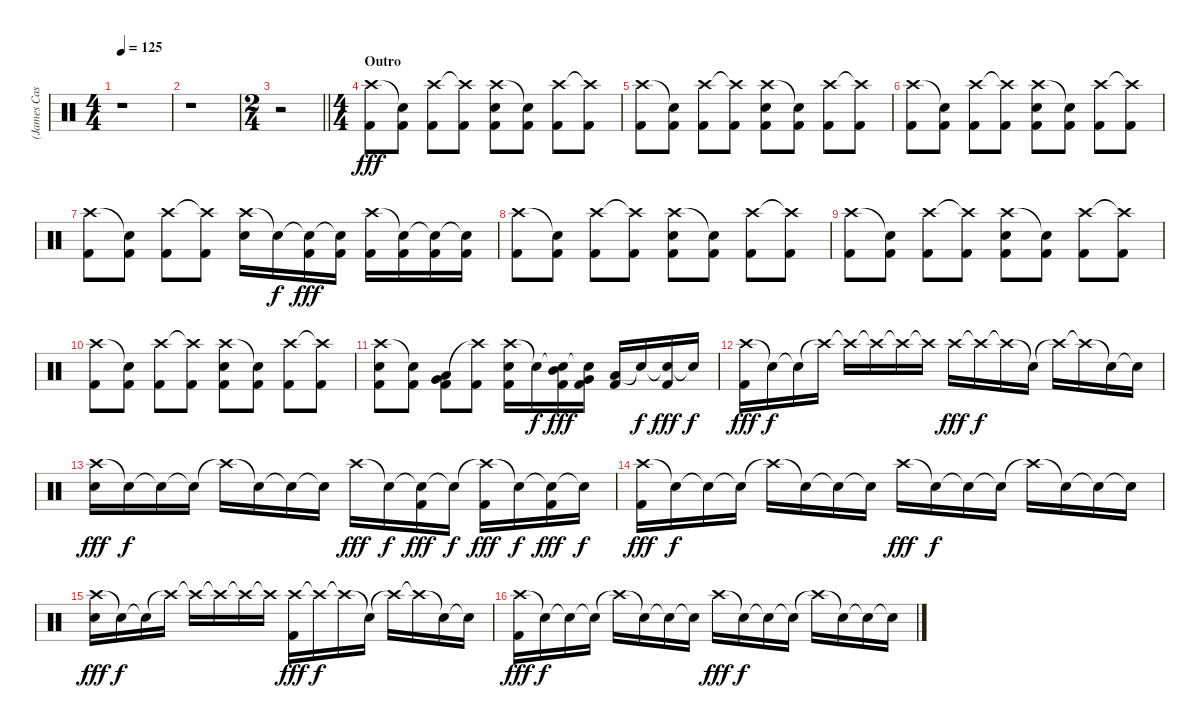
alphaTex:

\track ("(James Cassells) Drums" "(James Cas") {instrument percussion}
\staff {score}
\articulation defaults
\ts (4 4)
\tempo 125
\clef neutral
\ks c
r.1{dy fff} |
r.1 |
\ts (2 4)
\barLineRight lightlight
r.2 |
\ts (4 4)
\section ("" "Outro")
("Crash high (hit)" "Kick (hit) 2").8 ("Snare (hit)"{t} "Kick (hit) 2").8 ("Crash high (hit)" "Kick (hit) 2").8 ("Crash high (hit)"{t} "Kick (hit) 2").8 ("Crash high (hit)" "Electric Snare (hit)" "Kick (hit) 2").8 ("Snare (hit)"{t} "Kick (hit) 2").8 ("Crash high (hit)" "Kick (hit) 2").8 ("Crash high (hit)"{t} "Kick (hit) 2").8 |
("Crash high (hit)" "Kick (hit) 2").8 ("Snare (hit)"{t} "Kick (hit) 2").8 ("Crash high (hit)" "Kick (hit) 2").8 ("Crash high (hit)"{t} "Kick (hit) 2").8 ("Crash high (hit)" "Electric Snare (hit)" "Kick (hit) 2").8 ("Snare (hit)"{t} "Kick (hit) 2").8 ("Crash high (hit)" "Kick (hit) 2").8 ("Crash high (hit)"{t} "Kick (hit) 2").8 |
("Crash high (hit)" "Kick (hit) 2").8 ("Snare (hit)"{t} "Kick (hit) 2").8 ("Crash high (hit)" "Kick (hit) 2").8 ("Crash high (hit)"{t} "Kick (hit) 2").8 ("Crash high (hit)" "Electric Snare (hit)" "Kick (hit) 2").8 ("Snare (hit)"{t} "Kick (hit) 2").8 ("Crash high (hit)" "Kick (hit) 2").8 ("Crash high (hit)"{t} "Kick (hit) 2").8 |
("Crash high (hit)" "Kick (hit) 2").8 ("Snare (hit)"{t} "Kick (hit) 2").8 ("Crash high (hit)" "Kick (hit) 2").8 ("Crash high (hit)"{t} "Kick (hit) 2").8 ("Crash high (hit)" "Electric Snare (hit)").16 "Snare (hit)"{t}.16{dy f} ("Snare (hit)"{t} "Kick (hit) 2").16{dy fff} ("Snare (hit)"{t} "Kick (hit) 2").16 ("Crash high (hit)" "Kick (hit) 2").16 ("Snare (hit)"{t} "Kick (hit) 2").16 ("Snare (hit)"{t} "Kick (hit) 2").16 ("Snare (hit)"{t} "Kick (hit) 2").16 |
("Crash high (hit)" "Kick (hit) 2").8 ("Snare (hit)"{t} "Kick (hit) 2").8 ("Crash high (hit)" "Kick (hit) 2").8 ("Crash high (hit)"{t} "Kick (hit) 2").8 ("Crash high (hit)" "Electric Snare (hit)" "Kick (hit) 2").8 ("Snare (hit)"{t} "Kick (hit) 2").8 ("Crash high (hit)" "Kick (hit) 2").8 ("Crash high (hit)"{t} "Kick (hit) 2").8 |
("Crash high (hit)" "Kick (hit) 2").8 ("Snare (hit)"{t} "Kick (hit) 2").8 ("Crash high (hit)" "Kick (hit) 2").8 ("Crash high (hit)"{t} "Kick (hit) 2").8 ("Crash high (hit)" "Electric Snare (hit)" "Kick (hit) 2").8 ("Snare (hit)"{t} "Kick (hit) 2").8 ("Crash high (hit)" "Kick (hit) 2").8 ("Crash high (hit)"{t} "Kick (hit) 2").8 |
("Crash high (hit)" "Kick (hit) 2").8 ("Snare (hit)"{t} "Kick (hit) 2").8 ("Crash high (hit)" "Kick (hit) 2").8 ("Crash high (hit)"{t} "Kick (hit) 2").8 ("Crash high (hit)" "Electric Snare (hit)" "Kick (hit) 2").8 ("Snare (hit)"{t} "Kick (hit) 2").8 ("Crash high (hit)" "Kick (hit) 2").8 ("Crash high (hit)"{t} "Kick (hit) 2").8 |
("Crash high (hit)" "Electric Snare (hit)" "Kick (hit) 2").8 ("Snare (hit)"{t} "Kick (hit) 2").8 ("Very Low Tom (hit)" "Low Floor Tom (hit)" "Kick (hit) 2").8 ("Crash high (hit)"{t} "Kick (hit) 2").8 ("Crash high (hit)" "Electric Snare (hit)" "Kick (hit) 2").16 "Snare (hit)"{t}.16{dy f} ("Snare (hit)"{t} "Mid Tom (hit)" "Kick (hit) 2").16{dy fff} ("Snare (hit)"{t} "Very Low Tom (hit)" "Kick (hit) 2").16 ("Low Floor Tom (hit)" "Kick (hit) 2").16 "Snare (hit)"{t}.16{dy f} ("Snare (hit)"{t} "Kick (hit) 2").16{dy fff} "Snare (hit)"{t}.16{dy f} |
("Crash high (hit)" "Kick (hit) 2").16{dy fff} "Snare (hit)"{t}.16{dy f} "Snare (hit)"{t}.16 "Crash high (hit)"{t}.16 "Crash high (hit)"{t}.16 "Crash high (hit)"{t}.16 "Crash high (hit)"{t}.16 "Crash high (hit)"{t}.16 "Crash high (hit)".16{dy fff} "Crash high (hit)"{t}.16{dy f} "Crash high (hit)"{t}.16 "Snare (hit)"{t}.16 "Crash high (hit)"{t}.16 "Crash high (hit)"{t}.16 "Snare (hit)"{t}.16 "Snare (hit)"{t}.16 |
("Crash high (hit)" "Electric Snare (hit)").16{dy fff} "Snare (hit)"{t}.16{dy f} "Snare (hit)"{t}.16 "Snare (hit)"{t}.16 "Crash high (hit)"{t}.16 "Snare (hit)"{t}.16 "Snare (hit)"{t}.16 "Snare (hit)"{t}.16 "Crash high (hit)".16{dy fff} "Snare (hit)"{t}.16{dy f} ("Snare (hit)"{t} "Kick (hit) 2").16{dy fff} "Snare (hit)"{t}.16{dy f} ("Crash high (hit)"{t} "Kick (hit) 2").16{dy fff} "Snare (hit)"{t}.16{dy f} ("Snare (hit)"{t} "Kick (hit) 2").16{dy fff} "Snare (hit)"{t}.16{dy f} |
("Crash high (hit)" "Kick (hit) 2").16{dy fff} "Snare (hit)"{t}.16{dy f} "Snare (hit)"{t}.16 "Snare (hit)"{t}.16 "Crash high (hit)"{t}.16 "Snare (hit)"{t}.16 "Snare (hit)"{t}.16 "Snare (hit)"{t}.16 "Crash high (hit)".16{dy fff} "Snare (hit)"{t}.16{dy f} "Snare (hit)"{t}.16 "Snare (hit)"{t}.16 "Crash high (hit)"{t}.16 "Snare (hit)"{t}.16 "Snare (hit)"{t}.16 "Snare (hit)"{t}.16 |
("Crash high (hit)" "Electric Snare (hit)").16{dy fff} "Snare (hit)"{t}.16{dy f} "Snare (hit)"{t}.16 "Crash high (hit)"{t}.16 "Crash high (hit)"{t}.16 "Crash high (hit)"{t}.16 "Crash high (hit)"{t}.16 "Crash high (hit)"{t}.16 ("Crash high (hit)" "Kick (hit) 2").16{dy fff} "Crash high (hit)"{t}.16{dy f} "Crash high (hit)"{t}.16 "Snare (hit)"{t}.16 "Crash high (hit)"{t}.16 "Crash high (hit)"{t}.16 "Snare (hit)"{t}.16 "Snare (hit)"{t}.16 |
("Crash high (hit)" "Kick (hit) 2").16{dy fff} "Snare (hit)"{t}.16{dy f} "Snare (hit)"{t}.16 "Snare (hit)"{t}.16 "Crash high (hit)"{t}.16 "Snare (hit)"{t}.16 "Snare (hit)"{t}.16 "Snare (hit)"{t}.16 "Crash high (hit)".16{dy fff} "Snare (hit)"{t}.16{dy f} "Snare (hit)"{t}.16 "Snare (hit)"{t}.16 "Crash high (hit)"{t}.16 "Snare (hit)"{t}.16 "Snare (hit)"{t}.16 "Snare (hit)"{t}.16
